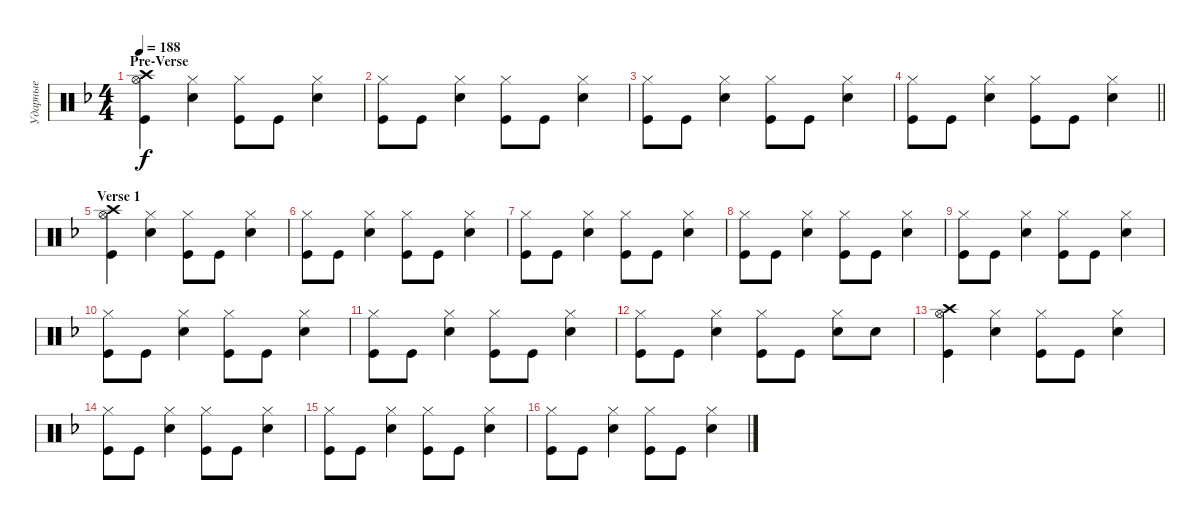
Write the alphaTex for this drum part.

\track ("Ударные" "Ударные") {instrument percussion}
\staff {score}
\articulation defaults
\ts (4 4)
\section ("" "Pre-Verse")
\tempo 188
\clef neutral
\ks dminor
("Kick (hit)" "Crash high (hit)" "Hi-Hat (open)").4{dy f} ("Snare (hit) 2" "Hi-Hat (closed)").4 ("Kick (hit)" "Hi-Hat (closed)").8 "Kick (hit)".8 ("Hi-Hat (closed)" "Snare (hit) 2").4 |
("Kick (hit)" "Hi-Hat (closed)").8 "Kick (hit)".8 ("Snare (hit) 2" "Hi-Hat (closed)").4 ("Kick (hit)" "Hi-Hat (closed)").8 "Kick (hit)".8 ("Hi-Hat (closed)" "Snare (hit) 2").4 |
("Kick (hit)" "Hi-Hat (closed)").8 "Kick (hit)".8 ("Snare (hit) 2" "Hi-Hat (closed)").4 ("Kick (hit)" "Hi-Hat (closed)").8 "Kick (hit)".8 ("Hi-Hat (closed)" "Snare (hit) 2").4 |
\barLineRight lightlight
("Kick (hit)" "Hi-Hat (closed)").8 "Kick (hit)".8 ("Snare (hit) 2" "Hi-Hat (closed)").4 ("Kick (hit)" "Hi-Hat (closed)").8 "Kick (hit)".8 ("Hi-Hat (closed)" "Snare (hit) 2").4 |
\section ("" "Verse 1")
("Kick (hit)" "Crash high (hit)" "Hi-Hat (open)").4 ("Snare (hit) 2" "Hi-Hat (closed)").4 ("Kick (hit)" "Hi-Hat (closed)").8 "Kick (hit)".8 ("Hi-Hat (closed)" "Snare (hit) 2").4 |
("Kick (hit)" "Hi-Hat (closed)").8 "Kick (hit)".8 ("Snare (hit) 2" "Hi-Hat (closed)").4 ("Kick (hit)" "Hi-Hat (closed)").8 "Kick (hit)".8 ("Hi-Hat (closed)" "Snare (hit) 2").4 |
("Kick (hit)" "Hi-Hat (closed)").8 "Kick (hit)".8 ("Snare (hit) 2" "Hi-Hat (closed)").4 ("Kick (hit)" "Hi-Hat (closed)").8 "Kick (hit)".8 ("Hi-Hat (closed)" "Snare (hit) 2").4 |
("Kick (hit)" "Hi-Hat (closed)").8 "Kick (hit)".8 ("Snare (hit) 2" "Hi-Hat (closed)").4 ("Kick (hit)" "Hi-Hat (closed)").8 "Kick (hit)".8 ("Hi-Hat (closed)" "Snare (hit) 2").4 |
("Kick (hit)" "Hi-Hat (closed)").8 "Kick (hit)".8 ("Snare (hit) 2" "Hi-Hat (closed)").4 ("Kick (hit)" "Hi-Hat (closed)").8 "Kick (hit)".8 ("Hi-Hat (closed)" "Snare (hit) 2").4 |
("Kick (hit)" "Hi-Hat (closed)").8 "Kick (hit)".8 ("Snare (hit) 2" "Hi-Hat (closed)").4 ("Kick (hit)" "Hi-Hat (closed)").8 "Kick (hit)".8 ("Hi-Hat (closed)" "Snare (hit) 2").4 |
("Kick (hit)" "Hi-Hat (closed)").8 "Kick (hit)".8 ("Snare (hit) 2" "Hi-Hat (closed)").4 ("Kick (hit)" "Hi-Hat (closed)").8 "Kick (hit)".8 ("Hi-Hat (closed)" "Snare (hit) 2").4 |
("Kick (hit)" "Hi-Hat (closed)").8 "Kick (hit)".8 ("Snare (hit) 2" "Hi-Hat (closed)").4 ("Kick (hit)" "Hi-Hat (closed)").8 "Kick (hit)".8 ("Hi-Hat (closed)" "Snare (hit) 2").8 "Snare (hit) 2".8 |
("Kick (hit)" "Crash high (hit)" "Hi-Hat (open)").4 ("Snare (hit) 2" "Hi-Hat (closed)").4 ("Kick (hit)" "Hi-Hat (closed)").8 "Kick (hit)".8 ("Hi-Hat (closed)" "Snare (hit) 2").4 |
("Kick (hit)" "Hi-Hat (closed)").8 "Kick (hit)".8 ("Snare (hit) 2" "Hi-Hat (closed)").4 ("Kick (hit)" "Hi-Hat (closed)").8 "Kick (hit)".8 ("Hi-Hat (closed)" "Snare (hit) 2").4 |
("Kick (hit)" "Hi-Hat (closed)").8 "Kick (hit)".8 ("Snare (hit) 2" "Hi-Hat (closed)").4 ("Kick (hit)" "Hi-Hat (closed)").8 "Kick (hit)".8 ("Hi-Hat (closed)" "Snare (hit) 2").4 |
("Kick (hit)" "Hi-Hat (closed)").8 "Kick (hit)".8 ("Snare (hit) 2" "Hi-Hat (closed)").4 ("Kick (hit)" "Hi-Hat (closed)").8 "Kick (hit)".8 ("Hi-Hat (closed)" "Snare (hit) 2").4
